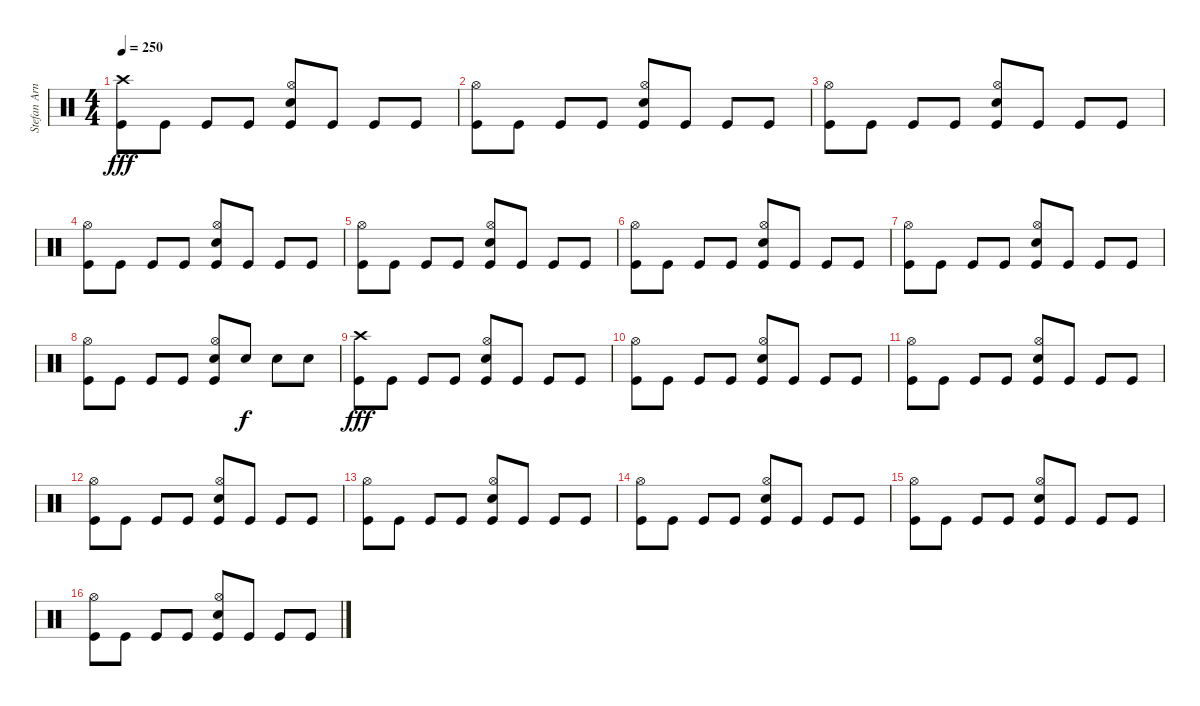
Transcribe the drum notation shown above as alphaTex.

\track ("Stefan Arnold (Batería)" "Stefan Arn") {instrument percussion}
\staff {score}
\articulation defaults
\ts (4 4)
\tempo 250
\clef neutral
\ks c
("Crash high (hit)" "Kick (hit)").8{dy fff} "Kick (hit)".8 "Kick (hit)".8 "Kick (hit)".8 ("Hi-Hat (open)" "Electric Snare (hit)" "Kick (hit)").8 "Kick (hit)".8 "Kick (hit)".8 "Kick (hit)".8 |
("Hi-Hat (open)" "Kick (hit)").8 "Kick (hit)".8 "Kick (hit)".8 "Kick (hit)".8 ("Hi-Hat (open)" "Electric Snare (hit)" "Kick (hit)").8 "Kick (hit)".8 "Kick (hit)".8 "Kick (hit)".8 |
("Hi-Hat (open)" "Kick (hit)").8 "Kick (hit)".8 "Kick (hit)".8 "Kick (hit)".8 ("Hi-Hat (open)" "Electric Snare (hit)" "Kick (hit)").8 "Kick (hit)".8 "Kick (hit)".8 "Kick (hit)".8 |
("Hi-Hat (open)" "Kick (hit)").8 "Kick (hit)".8 "Kick (hit)".8 "Kick (hit)".8 ("Hi-Hat (open)" "Electric Snare (hit)" "Kick (hit)").8 "Kick (hit)".8 "Kick (hit)".8 "Kick (hit)".8 |
("Hi-Hat (open)" "Kick (hit)").8 "Kick (hit)".8 "Kick (hit)".8 "Kick (hit)".8 ("Hi-Hat (open)" "Electric Snare (hit)" "Kick (hit)").8 "Kick (hit)".8 "Kick (hit)".8 "Kick (hit)".8 |
("Hi-Hat (open)" "Kick (hit)").8 "Kick (hit)".8 "Kick (hit)".8 "Kick (hit)".8 ("Hi-Hat (open)" "Electric Snare (hit)" "Kick (hit)").8 "Kick (hit)".8 "Kick (hit)".8 "Kick (hit)".8 |
("Hi-Hat (open)" "Kick (hit)").8 "Kick (hit)".8 "Kick (hit)".8 "Kick (hit)".8 ("Hi-Hat (open)" "Electric Snare (hit)" "Kick (hit)").8 "Kick (hit)".8 "Kick (hit)".8 "Kick (hit)".8 |
("Hi-Hat (open)" "Kick (hit)").8 "Kick (hit)".8 "Kick (hit)".8 "Kick (hit)".8 ("Hi-Hat (open)" "Electric Snare (hit)" "Kick (hit)").8 "Electric Snare (hit)".8{dy f} "Electric Snare (hit)".8 "Electric Snare (hit)".8 |
("Crash high (hit)" "Kick (hit)").8{dy fff} "Kick (hit)".8 "Kick (hit)".8 "Kick (hit)".8 ("Hi-Hat (open)" "Electric Snare (hit)" "Kick (hit)").8 "Kick (hit)".8 "Kick (hit)".8 "Kick (hit)".8 |
("Hi-Hat (open)" "Kick (hit)").8 "Kick (hit)".8 "Kick (hit)".8 "Kick (hit)".8 ("Hi-Hat (open)" "Electric Snare (hit)" "Kick (hit)").8 "Kick (hit)".8 "Kick (hit)".8 "Kick (hit)".8 |
("Hi-Hat (open)" "Kick (hit)").8 "Kick (hit)".8 "Kick (hit)".8 "Kick (hit)".8 ("Hi-Hat (open)" "Electric Snare (hit)" "Kick (hit)").8 "Kick (hit)".8 "Kick (hit)".8 "Kick (hit)".8 |
("Hi-Hat (open)" "Kick (hit)").8 "Kick (hit)".8 "Kick (hit)".8 "Kick (hit)".8 ("Hi-Hat (open)" "Electric Snare (hit)" "Kick (hit)").8 "Kick (hit)".8 "Kick (hit)".8 "Kick (hit)".8 |
("Hi-Hat (open)" "Kick (hit)").8 "Kick (hit)".8 "Kick (hit)".8 "Kick (hit)".8 ("Hi-Hat (open)" "Electric Snare (hit)" "Kick (hit)").8 "Kick (hit)".8 "Kick (hit)".8 "Kick (hit)".8 |
("Hi-Hat (open)" "Kick (hit)").8 "Kick (hit)".8 "Kick (hit)".8 "Kick (hit)".8 ("Hi-Hat (open)" "Electric Snare (hit)" "Kick (hit)").8 "Kick (hit)".8 "Kick (hit)".8 "Kick (hit)".8 |
("Hi-Hat (open)" "Kick (hit)").8 "Kick (hit)".8 "Kick (hit)".8 "Kick (hit)".8 ("Hi-Hat (open)" "Electric Snare (hit)" "Kick (hit)").8 "Kick (hit)".8 "Kick (hit)".8 "Kick (hit)".8 |
("Hi-Hat (open)" "Kick (hit)").8 "Kick (hit)".8 "Kick (hit)".8 "Kick (hit)".8 ("Hi-Hat (open)" "Electric Snare (hit)" "Kick (hit)").8 "Kick (hit)".8 "Kick (hit)".8 "Kick (hit)".8
